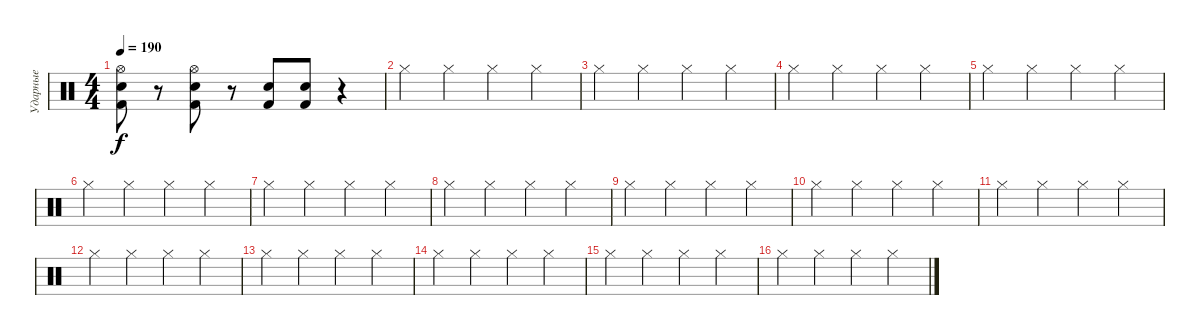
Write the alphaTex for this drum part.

\track ("Ударные" "Ударные") {instrument percussion}
\staff {score}
\articulation defaults
\ts (4 4)
\tempo 190
\clef neutral
\ks c
("Hi-Hat (open)" "Electric Snare (hit)" "Kick (hit) 2").8{dy f} r.8 ("Hi-Hat (open)" "Electric Snare (hit)" "Kick (hit) 2").8 r.8 ("Electric Snare (hit)" "Kick (hit) 2").8 ("Electric Snare (hit)" "Kick (hit) 2").8 r.4 |
"Hi-Hat (closed)".4 "Hi-Hat (closed)".4 "Hi-Hat (closed)".4 "Hi-Hat (closed)".4 |
"Hi-Hat (closed)".4 "Hi-Hat (closed)".4 "Hi-Hat (closed)".4 "Hi-Hat (closed)".4 |
"Hi-Hat (closed)".4 "Hi-Hat (closed)".4 "Hi-Hat (closed)".4 "Hi-Hat (closed)".4 |
"Hi-Hat (closed)".4 "Hi-Hat (closed)".4 "Hi-Hat (closed)".4 "Hi-Hat (closed)".4 |
"Hi-Hat (closed)".4 "Hi-Hat (closed)".4 "Hi-Hat (closed)".4 "Hi-Hat (closed)".4 |
"Hi-Hat (closed)".4 "Hi-Hat (closed)".4 "Hi-Hat (closed)".4 "Hi-Hat (closed)".4 |
"Hi-Hat (closed)".4 "Hi-Hat (closed)".4 "Hi-Hat (closed)".4 "Hi-Hat (closed)".4 |
"Hi-Hat (closed)".4 "Hi-Hat (closed)".4 "Hi-Hat (closed)".4 "Hi-Hat (closed)".4 |
"Hi-Hat (closed)".4 "Hi-Hat (closed)".4 "Hi-Hat (closed)".4 "Hi-Hat (closed)".4 |
"Hi-Hat (closed)".4 "Hi-Hat (closed)".4 "Hi-Hat (closed)".4 "Hi-Hat (closed)".4 |
"Hi-Hat (closed)".4 "Hi-Hat (closed)".4 "Hi-Hat (closed)".4 "Hi-Hat (closed)".4 |
"Hi-Hat (closed)".4 "Hi-Hat (closed)".4 "Hi-Hat (closed)".4 "Hi-Hat (closed)".4 |
"Hi-Hat (closed)".4 "Hi-Hat (closed)".4 "Hi-Hat (closed)".4 "Hi-Hat (closed)".4 |
"Hi-Hat (closed)".4 "Hi-Hat (closed)".4 "Hi-Hat (closed)".4 "Hi-Hat (closed)".4 |
"Hi-Hat (closed)".4 "Hi-Hat (closed)".4 "Hi-Hat (closed)".4 "Hi-Hat (closed)".4
